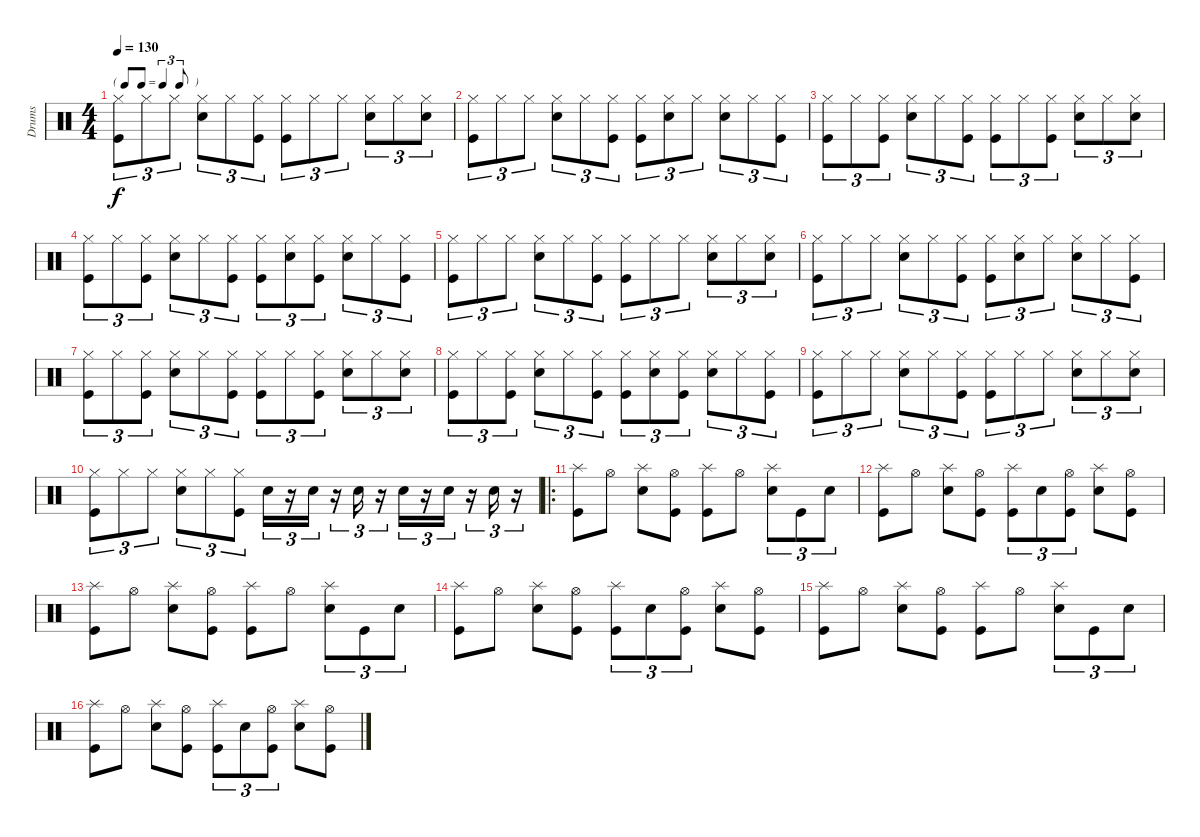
\track ("Drums" "Drums") {instrument percussion}
\staff {score}
\articulation defaults
\ts (4 4)
\tf triplet8th
\tempo 130
\clef neutral
\ks c
("Hi-Hat (closed)" "Kick (hit)").8{tu (3 2) dy f} "Hi-Hat (closed)".8{tu (3 2)} "Hi-Hat (closed)".8{tu (3 2)} ("Snare (hit) 2" "Hi-Hat (closed)").8{tu (3 2)} "Hi-Hat (closed)".8{tu (3 2)} ("Hi-Hat (closed)" "Kick (hit)").8{tu (3 2)} ("Hi-Hat (closed)" "Kick (hit)").8{tu (3 2)} "Hi-Hat (closed)".8{tu (3 2)} "Hi-Hat (closed)".8{tu (3 2)} ("Snare (hit) 2" "Hi-Hat (closed)").8{tu (3 2)} "Hi-Hat (closed)".8{tu (3 2)} ("Snare (hit) 2" "Hi-Hat (closed)").8{tu (3 2)} |
("Hi-Hat (closed)" "Kick (hit)").8{tu (3 2)} "Hi-Hat (closed)".8{tu (3 2)} "Hi-Hat (closed)".8{tu (3 2)} ("Snare (hit) 2" "Hi-Hat (closed)").8{tu (3 2)} "Hi-Hat (closed)".8{tu (3 2)} ("Hi-Hat (closed)" "Kick (hit)").8{tu (3 2)} ("Hi-Hat (closed)" "Kick (hit)").8{tu (3 2)} ("Snare (hit) 2" "Hi-Hat (closed)").8{tu (3 2)} "Hi-Hat (closed)".8{tu (3 2)} ("Snare (hit) 2" "Hi-Hat (closed)").8{tu (3 2)} "Hi-Hat (closed)".8{tu (3 2)} ("Hi-Hat (closed)" "Kick (hit)").8{tu (3 2)} |
("Hi-Hat (closed)" "Kick (hit)").8{tu (3 2)} "Hi-Hat (closed)".8{tu (3 2)} ("Hi-Hat (closed)" "Kick (hit)").8{tu (3 2)} ("Snare (hit) 2" "Hi-Hat (closed)").8{tu (3 2)} "Hi-Hat (closed)".8{tu (3 2)} ("Hi-Hat (closed)" "Kick (hit)").8{tu (3 2)} ("Hi-Hat (closed)" "Kick (hit)").8{tu (3 2)} "Hi-Hat (closed)".8{tu (3 2)} ("Hi-Hat (closed)" "Kick (hit)").8{tu (3 2)} ("Snare (hit) 2" "Hi-Hat (closed)").8{tu (3 2)} "Hi-Hat (closed)".8{tu (3 2)} ("Snare (hit) 2" "Hi-Hat (closed)").8{tu (3 2)} |
("Hi-Hat (closed)" "Kick (hit)").8{tu (3 2)} "Hi-Hat (closed)".8{tu (3 2)} ("Hi-Hat (closed)" "Kick (hit)").8{tu (3 2)} ("Snare (hit) 2" "Hi-Hat (closed)").8{tu (3 2)} "Hi-Hat (closed)".8{tu (3 2)} ("Hi-Hat (closed)" "Kick (hit)").8{tu (3 2)} ("Hi-Hat (closed)" "Kick (hit)").8{tu (3 2)} ("Snare (hit) 2" "Hi-Hat (closed)").8{tu (3 2)} ("Hi-Hat (closed)" "Kick (hit)").8{tu (3 2)} ("Snare (hit) 2" "Hi-Hat (closed)").8{tu (3 2)} "Hi-Hat (closed)".8{tu (3 2)} ("Hi-Hat (closed)" "Kick (hit)").8{tu (3 2)} |
("Hi-Hat (closed)" "Kick (hit)").8{tu (3 2)} "Hi-Hat (closed)".8{tu (3 2)} "Hi-Hat (closed)".8{tu (3 2)} ("Snare (hit) 2" "Hi-Hat (closed)").8{tu (3 2)} "Hi-Hat (closed)".8{tu (3 2)} ("Hi-Hat (closed)" "Kick (hit)").8{tu (3 2)} ("Hi-Hat (closed)" "Kick (hit)").8{tu (3 2)} "Hi-Hat (closed)".8{tu (3 2)} "Hi-Hat (closed)".8{tu (3 2)} ("Snare (hit) 2" "Hi-Hat (closed)").8{tu (3 2)} "Hi-Hat (closed)".8{tu (3 2)} ("Snare (hit) 2" "Hi-Hat (closed)").8{tu (3 2)} |
("Hi-Hat (closed)" "Kick (hit)").8{tu (3 2)} "Hi-Hat (closed)".8{tu (3 2)} "Hi-Hat (closed)".8{tu (3 2)} ("Snare (hit) 2" "Hi-Hat (closed)").8{tu (3 2)} "Hi-Hat (closed)".8{tu (3 2)} ("Hi-Hat (closed)" "Kick (hit)").8{tu (3 2)} ("Hi-Hat (closed)" "Kick (hit)").8{tu (3 2)} ("Snare (hit) 2" "Hi-Hat (closed)").8{tu (3 2)} "Hi-Hat (closed)".8{tu (3 2)} ("Snare (hit) 2" "Hi-Hat (closed)").8{tu (3 2)} "Hi-Hat (closed)".8{tu (3 2)} ("Hi-Hat (closed)" "Kick (hit)").8{tu (3 2)} |
("Hi-Hat (closed)" "Kick (hit)").8{tu (3 2)} "Hi-Hat (closed)".8{tu (3 2)} ("Hi-Hat (closed)" "Kick (hit)").8{tu (3 2)} ("Snare (hit) 2" "Hi-Hat (closed)").8{tu (3 2)} "Hi-Hat (closed)".8{tu (3 2)} ("Hi-Hat (closed)" "Kick (hit)").8{tu (3 2)} ("Hi-Hat (closed)" "Kick (hit)").8{tu (3 2)} "Hi-Hat (closed)".8{tu (3 2)} ("Hi-Hat (closed)" "Kick (hit)").8{tu (3 2)} ("Snare (hit) 2" "Hi-Hat (closed)").8{tu (3 2)} "Hi-Hat (closed)".8{tu (3 2)} ("Snare (hit) 2" "Hi-Hat (closed)").8{tu (3 2)} |
("Hi-Hat (closed)" "Kick (hit)").8{tu (3 2)} "Hi-Hat (closed)".8{tu (3 2)} ("Hi-Hat (closed)" "Kick (hit)").8{tu (3 2)} ("Snare (hit) 2" "Hi-Hat (closed)").8{tu (3 2)} "Hi-Hat (closed)".8{tu (3 2)} ("Hi-Hat (closed)" "Kick (hit)").8{tu (3 2)} ("Hi-Hat (closed)" "Kick (hit)").8{tu (3 2)} ("Snare (hit) 2" "Hi-Hat (closed)").8{tu (3 2)} ("Hi-Hat (closed)" "Kick (hit)").8{tu (3 2)} ("Snare (hit) 2" "Hi-Hat (closed)").8{tu (3 2)} "Hi-Hat (closed)".8{tu (3 2)} ("Hi-Hat (closed)" "Kick (hit)").8{tu (3 2)} |
("Hi-Hat (closed)" "Kick (hit)").8{tu (3 2)} "Hi-Hat (closed)".8{tu (3 2)} "Hi-Hat (closed)".8{tu (3 2)} ("Snare (hit) 2" "Hi-Hat (closed)").8{tu (3 2)} "Hi-Hat (closed)".8{tu (3 2)} ("Hi-Hat (closed)" "Kick (hit)").8{tu (3 2)} ("Hi-Hat (closed)" "Kick (hit)").8{tu (3 2)} "Hi-Hat (closed)".8{tu (3 2)} "Hi-Hat (closed)".8{tu (3 2)} ("Snare (hit) 2" "Hi-Hat (closed)").8{tu (3 2)} "Hi-Hat (closed)".8{tu (3 2)} ("Snare (hit) 2" "Hi-Hat (closed)").8{tu (3 2)} |
("Hi-Hat (closed)" "Kick (hit)").8{tu (3 2)} "Hi-Hat (closed)".8{tu (3 2)} "Hi-Hat (closed)".8{tu (3 2)} ("Snare (hit) 2" "Hi-Hat (closed)").8{tu (3 2)} "Hi-Hat (closed)".8{tu (3 2)} ("Hi-Hat (closed)" "Kick (hit)").8{tu (3 2)} "Electric Snare (hit)".16{tu (3 2)} r.16{tu (3 2)} "Electric Snare (hit)".16{tu (3 2)} r.16{tu (3 2)} "Electric Snare (hit)".16{tu (3 2)} r.16{tu (3 2)} "Electric Snare (hit)".16{tu (3 2)} r.16{tu (3 2)} "Electric Snare (hit)".16{tu (3 2)} r.16{tu (3 2)} "Electric Snare (hit)".16{tu (3 2)} r.16{tu (3 2)} |
\ro
("Splash (hit)" "Kick (hit)").8 "Hi-Hat (open)".8 ("Splash (hit)" "Electric Snare (hit)").8 ("Hi-Hat (open)" "Kick (hit)").8 ("Splash (hit)" "Kick (hit)").8 "Hi-Hat (open)".8 ("Splash (hit)" "Electric Snare (hit)").8{tu (3 2)} "Kick (hit)".8{tu (3 2)} "Electric Snare (hit)".8{tu (3 2)} |
("Splash (hit)" "Kick (hit)").8 "Hi-Hat (open)".8 ("Splash (hit)" "Electric Snare (hit)").8 ("Hi-Hat (open)" "Kick (hit)").8 ("Splash (hit)" "Kick (hit)").8{tu (3 2)} "Electric Snare (hit)".8{tu (3 2)} ("Hi-Hat (open)" "Kick (hit)").8{tu (3 2)} ("Splash (hit)" "Electric Snare (hit)").8 ("Hi-Hat (open)" "Kick (hit)").8 |
("Splash (hit)" "Kick (hit)").8 "Hi-Hat (open)".8 ("Splash (hit)" "Electric Snare (hit)").8 ("Hi-Hat (open)" "Kick (hit)").8 ("Splash (hit)" "Kick (hit)").8 "Hi-Hat (open)".8 ("Splash (hit)" "Electric Snare (hit)").8{tu (3 2)} "Kick (hit)".8{tu (3 2)} "Electric Snare (hit)".8{tu (3 2)} |
("Splash (hit)" "Kick (hit)").8 "Hi-Hat (open)".8 ("Splash (hit)" "Electric Snare (hit)").8 ("Hi-Hat (open)" "Kick (hit)").8 ("Splash (hit)" "Kick (hit)").8{tu (3 2)} "Electric Snare (hit)".8{tu (3 2)} ("Hi-Hat (open)" "Kick (hit)").8{tu (3 2)} ("Splash (hit)" "Electric Snare (hit)").8 ("Hi-Hat (open)" "Kick (hit)").8 |
("Splash (hit)" "Kick (hit)").8 "Hi-Hat (open)".8 ("Splash (hit)" "Electric Snare (hit)").8 ("Hi-Hat (open)" "Kick (hit)").8 ("Splash (hit)" "Kick (hit)").8 "Hi-Hat (open)".8 ("Splash (hit)" "Electric Snare (hit)").8{tu (3 2)} "Kick (hit)".8{tu (3 2)} "Electric Snare (hit)".8{tu (3 2)} |
("Splash (hit)" "Kick (hit)").8 "Hi-Hat (open)".8 ("Splash (hit)" "Electric Snare (hit)").8 ("Hi-Hat (open)" "Kick (hit)").8 ("Splash (hit)" "Kick (hit)").8{tu (3 2)} "Electric Snare (hit)".8{tu (3 2)} ("Hi-Hat (open)" "Kick (hit)").8{tu (3 2)} ("Splash (hit)" "Electric Snare (hit)").8 ("Hi-Hat (open)" "Kick (hit)").8
